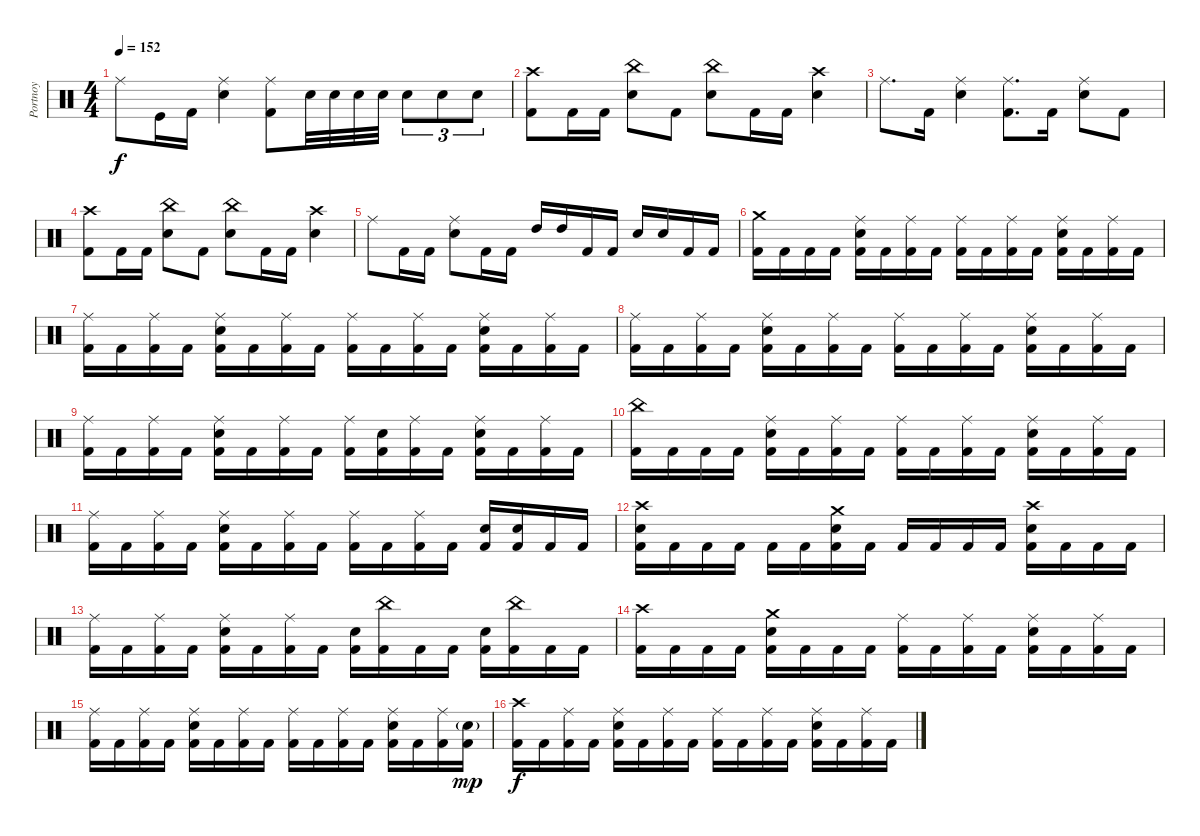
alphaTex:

\track ("Portnoy" "Portnoy") {instrument percussion}
\staff {score}
\articulation defaults
\ts (4 4)
\tempo 152
\clef neutral
\ks c "Ride (middle)".8{dy f} "Kick (hit)".16 "Kick (hit) 2".16
("Ride (middle)" "Electric Snare (hit)").4 ("Ride (middle)" "Kick (hit) 2").8 "Electric Snare (hit)".32 "Electric Snare (hit)".32 "Electric Snare (hit)".32 "Electric Snare (hit)".32 "Electric Snare (hit)".8{tu (3 2)} "Electric Snare (hit)".8{tu (3 2)} "Electric Snare (hit)".8{tu (3 2)} |
("Crash high (hit)" "Kick (hit) 2").8 "Kick (hit) 2".16 "Kick (hit) 2".16 ("China (hit)" "Electric Snare (hit)").8 "Kick (hit) 2".8 ("China (hit)" "Electric Snare (hit)").8 "Kick (hit) 2".16 "Kick (hit) 2".16 ("Crash high (hit)" "Electric Snare (hit)").4 |
"Ride (middle)".8{d} "Kick (hit) 2".16 ("Ride (middle)" "Electric Snare (hit)").4 ("Ride (middle)" "Kick (hit) 2").8{d} "Kick (hit) 2".16 ("Ride (middle)" "Electric Snare (hit)").8 "Kick (hit) 2".8 |
("Crash high (hit)" "Kick (hit) 2").8 "Kick (hit) 2".16 "Kick (hit) 2".16 ("China (hit)" "Electric Snare (hit)").8 "Kick (hit) 2".8 ("China (hit)" "Electric Snare (hit)").8 "Kick (hit) 2".16 "Kick (hit) 2".16 ("Crash high (hit)" "Electric Snare (hit)").4 |
"Ride (middle)".8 "Kick (hit) 2".16 "Kick (hit) 2".16 ("Ride (middle)" "Electric Snare (hit)").8 "Kick (hit) 2".16 "Kick (hit) 2".16 "High Tom (hit)".16 "High Tom (hit)".16 "Kick (hit) 2".16 "Kick (hit) 2".16 "Electric Snare (hit)".16 "Electric Snare (hit)".16 "Kick (hit) 2".16 "Kick (hit) 2".16 |
("Crash medium (hit)" "Kick (hit) 2").16 "Kick (hit) 2".16 "Kick (hit) 2".16 "Kick (hit) 2".16 ("Ride (middle)" "Electric Snare (hit)" "Kick (hit) 2").16 "Kick (hit) 2".16 ("Ride (middle)" "Kick (hit) 2").16 "Kick (hit) 2".16 ("Ride (middle)" "Kick (hit) 2").16 "Kick (hit) 2".16 ("Ride (middle)" "Kick (hit) 2").16 "Kick (hit) 2".16 ("Ride (middle)" "Electric Snare (hit)" "Kick (hit) 2").16 "Kick (hit) 2".16 ("Ride (middle)" "Kick (hit) 2").16 "Kick (hit) 2".16 |
("Ride (middle)" "Kick (hit) 2").16 "Kick (hit) 2".16 ("Ride (middle)" "Kick (hit) 2").16 "Kick (hit) 2".16 ("Ride (middle)" "Electric Snare (hit)" "Kick (hit) 2").16 "Kick (hit) 2".16 ("Ride (middle)" "Kick (hit) 2").16 "Kick (hit) 2".16 ("Ride (middle)" "Kick (hit) 2").16 "Kick (hit) 2".16 ("Ride (middle)" "Kick (hit) 2").16 "Kick (hit) 2".16 ("Ride (middle)" "Electric Snare (hit)" "Kick (hit) 2").16 "Kick (hit) 2".16 ("Ride (middle)" "Kick (hit) 2").16 "Kick (hit) 2".16 |
("Ride (middle)" "Kick (hit) 2").16 "Kick (hit) 2".16 ("Ride (middle)" "Kick (hit) 2").16 "Kick (hit) 2".16 ("Ride (middle)" "Electric Snare (hit)" "Kick (hit) 2").16 "Kick (hit) 2".16 ("Ride (middle)" "Kick (hit) 2").16 "Kick (hit) 2".16 ("Ride (middle)" "Kick (hit) 2").16 "Kick (hit) 2".16 ("Ride (middle)" "Kick (hit) 2").16 "Kick (hit) 2".16 ("Ride (middle)" "Electric Snare (hit)" "Kick (hit) 2").16 "Kick (hit) 2".16 ("Ride (middle)" "Kick (hit) 2").16 "Kick (hit) 2".16 |
("Ride (middle)" "Kick (hit) 2").16 "Kick (hit) 2".16 ("Ride (middle)" "Kick (hit) 2").16 "Kick (hit) 2".16 ("Ride (middle)" "Electric Snare (hit)" "Kick (hit) 2").16 "Kick (hit) 2".16 ("Ride (middle)" "Kick (hit) 2").16 "Kick (hit) 2".16 ("Ride (middle)" "Kick (hit) 2").16 ("Electric Snare (hit)" "Kick (hit) 2").16 ("Ride (middle)" "Kick (hit) 2").16 "Kick (hit) 2".16 ("Ride (middle)" "Electric Snare (hit)" "Kick (hit) 2").16 "Kick (hit) 2".16 ("Ride (middle)" "Kick (hit) 2").16 "Kick (hit) 2".16 |
("China (hit)" "Kick (hit) 2").16 "Kick (hit) 2".16 "Kick (hit) 2".16 "Kick (hit) 2".16 ("Ride (middle)" "Electric Snare (hit)" "Kick (hit) 2").16 "Kick (hit) 2".16 ("Ride (middle)" "Kick (hit) 2").16 "Kick (hit) 2".16 ("Ride (middle)" "Kick (hit) 2").16 "Kick (hit) 2".16 ("Ride (middle)" "Kick (hit) 2").16 "Kick (hit) 2".16 ("Ride (middle)" "Electric Snare (hit)" "Kick (hit) 2").16 "Kick (hit) 2".16 ("Ride (middle)" "Kick (hit) 2").16 "Kick (hit) 2".16 |
("Ride (middle)" "Kick (hit) 2").16 "Kick (hit) 2".16 ("Ride (middle)" "Kick (hit) 2").16 "Kick (hit) 2".16 ("Ride (middle)" "Electric Snare (hit)" "Kick (hit) 2").16 "Kick (hit) 2".16 ("Ride (middle)" "Kick (hit) 2").16 "Kick (hit) 2".16 ("Ride (middle)" "Kick (hit) 2").16 "Kick (hit) 2".16 ("Ride (middle)" "Kick (hit) 2").16 "Kick (hit) 2".16 ("Electric Snare (hit)" "Kick (hit) 2").16 ("Electric Snare (hit)" "Kick (hit) 2").16 "Kick (hit) 2".16 "Kick (hit) 2".16 |
("Crash high (hit)" "Electric Snare (hit)" "Kick (hit) 2").16 "Kick (hit) 2".16 "Kick (hit) 2".16 "Kick (hit) 2".16 "Kick (hit) 2".16 "Kick (hit) 2".16 ("Crash medium (hit)" "Electric Snare (hit)" "Kick (hit) 2").16 "Kick (hit) 2".16 "Kick (hit) 2".16 "Kick (hit) 2".16 "Kick (hit) 2".16 "Kick (hit) 2".16 ("Crash high (hit)" "Electric Snare (hit)" "Kick (hit) 2").16 "Kick (hit) 2".16 "Kick (hit) 2".16 "Kick (hit) 2".16 |
("Ride (middle)" "Kick (hit) 2").16 "Kick (hit) 2".16 ("Ride (middle)" "Kick (hit) 2").16 "Kick (hit) 2".16 ("Ride (middle)" "Electric Snare (hit)" "Kick (hit) 2").16 "Kick (hit) 2".16 ("Ride (middle)" "Kick (hit) 2").16 "Kick (hit) 2".16 ("Electric Snare (hit)" "Kick (hit) 2").16 ("China (hit)" "Kick (hit) 2").16 "Kick (hit) 2".16 "Kick (hit) 2".16 ("Electric Snare (hit)" "Kick (hit) 2").16 ("China (hit)" "Kick (hit) 2").16 "Kick (hit) 2".16 "Kick (hit) 2".16 |
("Crash high (hit)" "Kick (hit) 2").16 "Kick (hit) 2".16 "Kick (hit) 2".16 "Kick (hit) 2".16 ("Crash medium (hit)" "Electric Snare (hit)" "Kick (hit) 2").16 "Kick (hit) 2".16 "Kick (hit) 2".16 "Kick (hit) 2".16 ("Ride (middle)" "Kick (hit) 2").16 "Kick (hit) 2".16 ("Ride (middle)" "Kick (hit) 2").16 "Kick (hit) 2".16 ("Ride (middle)" "Electric Snare (hit)" "Kick (hit) 2").16 "Kick (hit) 2".16 ("Ride (middle)" "Kick (hit) 2").16 "Kick (hit) 2".16 |
("Ride (middle)" "Kick (hit) 2").16 "Kick (hit) 2".16 ("Ride (middle)" "Kick (hit) 2").16 "Kick (hit) 2".16 ("Ride (middle)" "Electric Snare (hit)" "Kick (hit) 2").16 "Kick (hit) 2".16 ("Ride (middle)" "Kick (hit) 2").16 "Kick (hit) 2".16 ("Ride (middle)" "Kick (hit) 2").16 "Kick (hit) 2".16 ("Ride (middle)" "Kick (hit) 2").16 "Kick (hit) 2".16 ("Ride (middle)" "Electric Snare (hit)" "Kick (hit) 2").16 "Kick (hit) 2".16 ("Ride (middle)" "Kick (hit) 2").16 ("Electric Snare (hit)"{g} "Kick (hit) 2").16{dy mp} |
("Crash high (hit)" "Kick (hit) 2").16{dy f} "Kick (hit) 2".16 ("Ride (middle)" "Kick (hit) 2").16 "Kick (hit) 2".16 ("Ride (middle)" "Electric Snare (hit)" "Kick (hit) 2").16 "Kick (hit) 2".16 ("Ride (middle)" "Kick (hit) 2").16 "Kick (hit) 2".16 ("Ride (middle)" "Kick (hit) 2").16 "Kick (hit) 2".16 ("Ride (middle)" "Kick (hit) 2").16 "Kick (hit) 2".16 ("Ride (middle)" "Electric Snare (hit)" "Kick (hit) 2").16 "Kick (hit) 2".16 ("Ride (middle)" "Kick (hit) 2").16 "Kick (hit) 2".16
